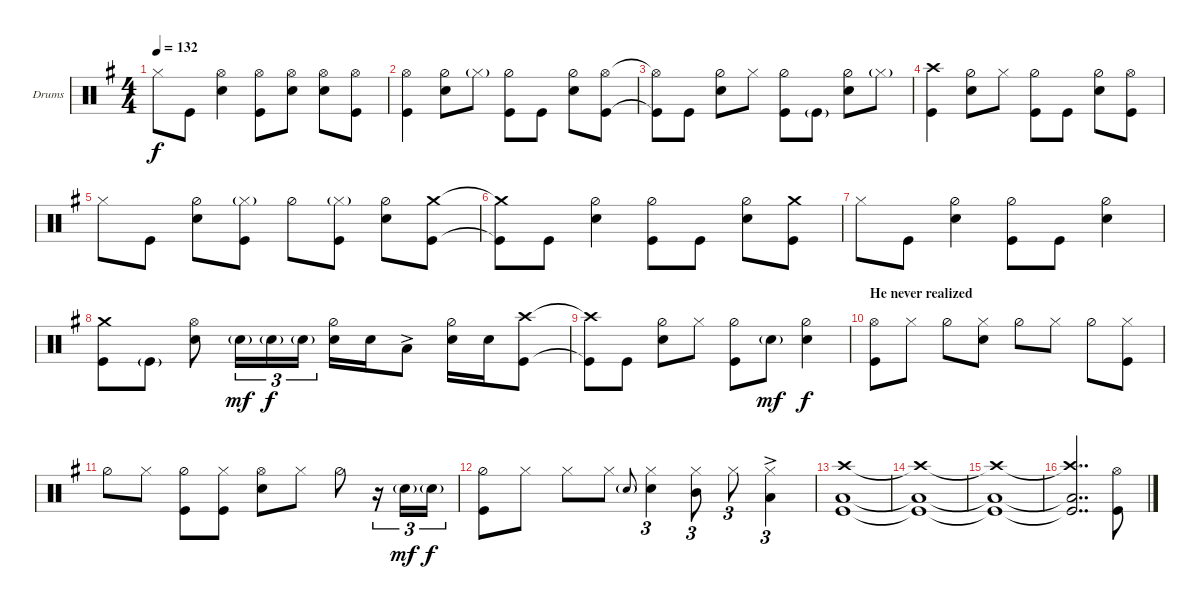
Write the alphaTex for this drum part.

\bracketExtendMode groupsimilarinstruments
\firstSystemTrackNameOrientation horizontal
\otherSystemsTrackNameOrientation horizontal
\track ("Drumkit" "Drums") {instrument percussion}
\staff {score}
\articulation defaults
\ts (4 4)
\tempo 132
\clef neutral
\scale
0.333333
\ks g "Hi-Hat (closed)".8{dy f} "Kick (hit)".8
("Hi-Hat (open)" "Snare (hit) 2").4 ("Hi-Hat (open)" "Kick (hit)").8 ("Hi-Hat (open)" "Snare (hit) 2").8 ("Hi-Hat (open)" "Snare (hit) 2").8 ("Kick (hit)" "Hi-Hat (open)").8 |
\scale
0.333333 ("Kick (hit)" "Hi-Hat (open)").4 ("Hi-Hat (half)" "Snare (hit) 2").8 "Hi-Hat (closed)"{g}.8 ("Hi-Hat (half)" "Kick (hit)").8 "Kick (hit)".8 ("Hi-Hat (half)" "Snare (hit) 2").8 ("Kick (hit)" "Hi-Hat (open)").8 |
\scale
0.333333 ("Kick (hit)"{t} "Hi-Hat (open)"{t}).8 "Kick (hit)".8 ("Hi-Hat (half)" "Snare (hit) 2").8 "Hi-Hat (closed)".8 ("Hi-Hat (half)" "Kick (hit)").8 "Kick (hit)"{g}.8 ("Hi-Hat (half)" "Snare (hit) 2").8 "Hi-Hat (closed)"{g}.8 |
\scale
0.333333 ("Kick (hit)" "Crash high (hit)").4 ("Hi-Hat (half)" "Snare (hit) 2").8 "Hi-Hat (closed)".8 ("Hi-Hat (half)" "Kick (hit)").8 "Kick (hit)".8 ("Hi-Hat (half)" "Snare (hit) 2").8 ("Kick (hit)" "Hi-Hat (open)").8 |
\scale
0.333333 "Hi-Hat (closed)".8 "Kick (hit)".8 ("Snare (hit) 2" "Hi-Hat (half)").8 ("Kick (hit)" "Hi-Hat (closed)"{g}).8 "Hi-Hat (half)".8 ("Kick (hit)" "Hi-Hat (closed)"{g}).8 ("Snare (hit) 2" "Hi-Hat (half)").8 ("Kick (hit)" "Crash medium (hit)").8 |
\scale
0.333333 ("Kick (hit)"{t} "Crash medium (hit)"{t}).8 "Kick (hit)".8 ("Hi-Hat (half)" "Snare (hit) 2").4 ("Hi-Hat (half)" "Kick (hit)").8 "Kick (hit)".8 ("Hi-Hat (half)" "Snare (hit) 2").8 ("Kick (hit)" "Crash medium (hit)").8 |
\scale
0.333333 "Hi-Hat (closed)".8 "Kick (hit)".8 ("Hi-Hat (half)" "Snare (hit) 2").4 ("Hi-Hat (half)" "Kick (hit)").8 "Kick (hit)".8 ("Hi-Hat (half)" "Snare (hit) 2").4 |
\scale
0.333333 ("Crash medium (hit)" "Kick (hit)").8 "Kick (hit)"{g}.8 ("Snare (hit) 2" "Hi-Hat (open)").8 "Snare (hit) 2"{g}.16{tu (3 2) dy mf} "Snare (hit) 2"{g}.16{tu (3 2) dy f} "Snare (hit) 2"{g}.16{tu (3 2)} ("Snare (hit) 2" "Hi-Hat (half)").16 "Snare (hit) 2".16 "Low Tom (hit)"{ac}.8 ("Snare (hit) 2" "Hi-Hat (half)").16 "Snare (hit) 2".16 ("Kick (hit)" "Crash high (hit)").8 |
\scale
0.333333 ("Kick (hit)"{t} "Crash high (hit)"{t}).8 "Kick (hit)".8 ("Hi-Hat (half)" "Snare (hit) 2").8 "Hi-Hat (closed)".8 ("Hi-Hat (half)" "Kick (hit)").8 "Snare (hit) 2"{g}.8{dy mf} ("Hi-Hat (half)" "Snare (hit) 2").4{dy f} |
\section ("" "He never realized")
\scale
0.333333 ("Hi-Hat (open)" "Kick (hit)").8 "Hi-Hat (closed)".8 "Hi-Hat (half)".8 ("Hi-Hat (closed)" "Snare (hit) 2").8 "Hi-Hat (half)".8 "Hi-Hat (closed)".8 "Hi-Hat (half)".8 ("Hi-Hat (closed)" "Kick (hit)").8 |
\scale
0.333333 "Hi-Hat (half)".8 "Hi-Hat (closed)".8 ("Hi-Hat (half)" "Kick (hit)").8 ("Hi-Hat (closed)" "Kick (hit)").8 ("Hi-Hat (open)" "Snare (hit) 2").8 "Hi-Hat (closed)".8 "Hi-Hat (half)".8 r.16{tu (3 2)} "Snare (hit) 2"{g}.16{tu (3 2) dy mf} "Snare (hit) 2"{g}.16{tu (3 2) dy f} |
\scale
0.333333 ("Hi-Hat (half)" "Kick (hit)").8 "Hi-Hat (closed)".8 "Hi-Hat (closed)".8 "Hi-Hat (closed)".8 "Snare (hit) 2"{g}.8{gr onbeat} ("Hi-Hat (closed)" "Snare (hit) 2").4{tu (3 2)} ("Mid Tom (hit)" "Hi-Hat (closed)").8{tu (3 2)} "Hi-Hat (closed)".8{tu (3 2)} ("Low Tom (hit)"{ac} "Hi-Hat (closed)").4{tu (3 2)} |
\scale
0.333333 ("Crash high (hit)" "Kick (hit)" "Low Tom (hit)").1 |
\scale
0.333333 ("Crash high (hit)"{t} "Kick (hit)"{t} "Low Tom (hit)"{t}).1 |
\scale
0.333333 ("Crash high (hit)"{t} "Kick (hit)"{t} "Low Tom (hit)"{t}).1 |
\scale
0.333333 ("Crash high (hit)"{t} "Kick (hit)"{t} "Low Tom (hit)"{t}).2{dd} ("Kick (hit)" "Hi-Hat (open)").8
